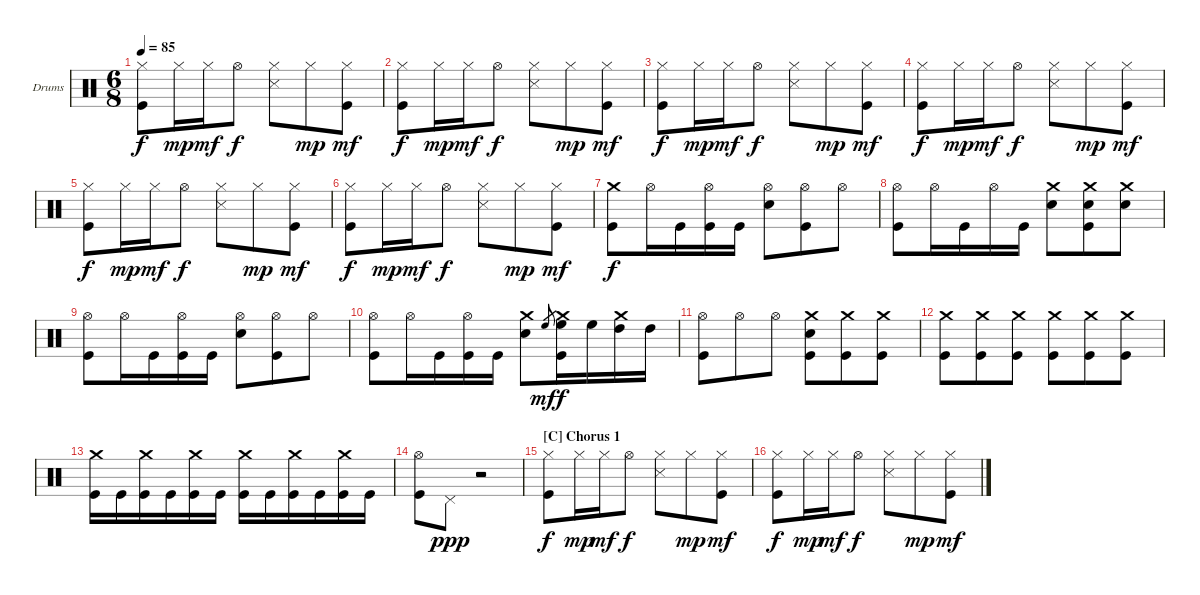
\defaultSystemsLayout 4
\bracketExtendMode groupsimilarinstruments
\firstSystemTrackNameOrientation horizontal
\otherSystemsTrackNameOrientation horizontal
\track ("Drums" "Drums") {instrument percussion}
\staff {score}
\articulation defaults
\ts (6 8)
\tempo 85
\clef neutral
\ks c
("Hi-Hat (closed)" "Kick (hit)").8{dy f} "Hi-Hat (closed)".16{dy mp} "Hi-Hat (closed)".16{dy mf} "Hi-Hat (open)".8{dy f} ("Hi-Hat (closed)" "Snare (side stick) 3").8 "Hi-Hat (closed)".8{dy mp} ("Hi-Hat (closed)" "Kick (hit)").8{dy mf} |
("Hi-Hat (closed)" "Kick (hit)").8{dy f} "Hi-Hat (closed)".16{dy mp} "Hi-Hat (closed)".16{dy mf} "Hi-Hat (open)".8{dy f} ("Hi-Hat (closed)" "Snare (side stick) 3").8 "Hi-Hat (closed)".8{dy mp} ("Hi-Hat (closed)" "Kick (hit)").8{dy mf} |
("Hi-Hat (closed)" "Kick (hit)").8{dy f} "Hi-Hat (closed)".16{dy mp} "Hi-Hat (closed)".16{dy mf} "Hi-Hat (open)".8{dy f} ("Hi-Hat (closed)" "Snare (side stick) 3").8 "Hi-Hat (closed)".8{dy mp} ("Hi-Hat (closed)" "Kick (hit)").8{dy mf} |
("Hi-Hat (closed)" "Kick (hit)").8{dy f} "Hi-Hat (closed)".16{dy mp} "Hi-Hat (closed)".16{dy mf} "Hi-Hat (open)".8{dy f} ("Hi-Hat (closed)" "Snare (side stick) 3").8 "Hi-Hat (closed)".8{dy mp} ("Hi-Hat (closed)" "Kick (hit)").8{dy mf} |
("Hi-Hat (closed)" "Kick (hit)").8{dy f} "Hi-Hat (closed)".16{dy mp} "Hi-Hat (closed)".16{dy mf} "Hi-Hat (open)".8{dy f} ("Hi-Hat (closed)" "Snare (side stick) 3").8 "Hi-Hat (closed)".8{dy mp} ("Hi-Hat (closed)" "Kick (hit)").8{dy mf} |
("Hi-Hat (closed)" "Kick (hit)").8{dy f} "Hi-Hat (closed)".16{dy mp} "Hi-Hat (closed)".16{dy mf} "Hi-Hat (open)".8{dy f} ("Hi-Hat (closed)" "Snare (side stick) 3").8 "Hi-Hat (closed)".8{dy mp} ("Hi-Hat (closed)" "Kick (hit)").8{dy mf} |
("Crash medium (hit)" "Kick (hit)").8{dy f} "Hi-Hat (open)".16 "Kick (hit)".16 ("Hi-Hat (open)" "Kick (hit)").16 "Kick (hit)".16 ("Hi-Hat (open)" "Snare (hit) 2").8 ("Hi-Hat (open)" "Kick (hit)").8 "Hi-Hat (open)".8 |
("Hi-Hat (open)" "Kick (hit)").8 "Hi-Hat (open)".16 "Kick (hit)".16 "Hi-Hat (open)".16 "Kick (hit)".16 ("Crash medium (hit)" "Snare (hit) 2").8 ("Crash medium (hit)" "Snare (hit) 2" "Kick (hit)").8 ("Crash medium (hit)" "Snare (hit) 2").8 |
("Hi-Hat (open)" "Kick (hit)").8 "Hi-Hat (open)".16 "Kick (hit)".16 ("Hi-Hat (open)" "Kick (hit)").16 "Kick (hit)".16 ("Hi-Hat (open)" "Snare (hit) 2").8 ("Hi-Hat (open)" "Kick (hit)").8 "Hi-Hat (open)".8 |
("Hi-Hat (open)" "Kick (hit)").8 "Hi-Hat (open)".16 "Kick (hit)".16 ("Hi-Hat (open)" "Kick (hit)").16 "Kick (hit)".16 ("Crash medium (hit)" "Snare (hit) 2").8 "High Floor Tom (hit)".8{gr dy mf} ("Crash medium (hit)" "High Floor Tom (hit)" "Kick (hit)").16{dy f} "High Floor Tom (hit)".16 ("Crash medium (hit)" "High Tom (hit)").16 "High Tom (hit)".16 |
("Hi-Hat (open)" "Kick (hit)").8 "Hi-Hat (open)".8 "Hi-Hat (open)".8 ("Crash medium (hit)" "Snare (hit) 2" "Kick (hit)").8 ("Crash medium (hit)" "Kick (hit)").8 ("Crash medium (hit)" "Kick (hit)").8 |
("Crash medium (hit)" "Kick (hit)").8 ("Crash medium (hit)" "Kick (hit)").8 ("Crash medium (hit)" "Kick (hit)").8 ("Crash medium (hit)" "Kick (hit)").8 ("Crash medium (hit)" "Kick (hit)").8 ("Crash medium (hit)" "Kick (hit)").8 |
("Crash medium (hit)" "Kick (hit)").16 "Kick (hit)".16 ("Crash medium (hit)" "Kick (hit)").16 "Kick (hit)".16 ("Crash medium (hit)" "Kick (hit)").16 "Kick (hit)".16 ("Crash medium (hit)" "Kick (hit)").16 "Kick (hit)".16 ("Crash medium (hit)" "Kick (hit)").16 "Kick (hit)".16 ("Crash medium (hit)" "Kick (hit)").16 "Kick (hit)".16 |
("Hi-Hat (open)" "Kick (hit)").8 "Pedal Hi-Hat (hit)".8{dy ppp} r.2 |
\section ("C" "Chorus 1")
("Hi-Hat (closed)" "Kick (hit)").8{dy f} "Hi-Hat (closed)".16{dy mp} "Hi-Hat (closed)".16{dy mf} "Hi-Hat (open)".8{dy f} ("Hi-Hat (closed)" "Snare (side stick) 3").8 "Hi-Hat (closed)".8{dy mp} ("Hi-Hat (closed)" "Kick (hit)").8{dy mf} |
("Hi-Hat (closed)" "Kick (hit)").8{dy f} "Hi-Hat (closed)".16{dy mp} "Hi-Hat (closed)".16{dy mf} "Hi-Hat (open)".8{dy f} ("Hi-Hat (closed)" "Snare (side stick) 3").8 "Hi-Hat (closed)".8{dy mp} ("Hi-Hat (closed)" "Kick (hit)").8{dy mf}
